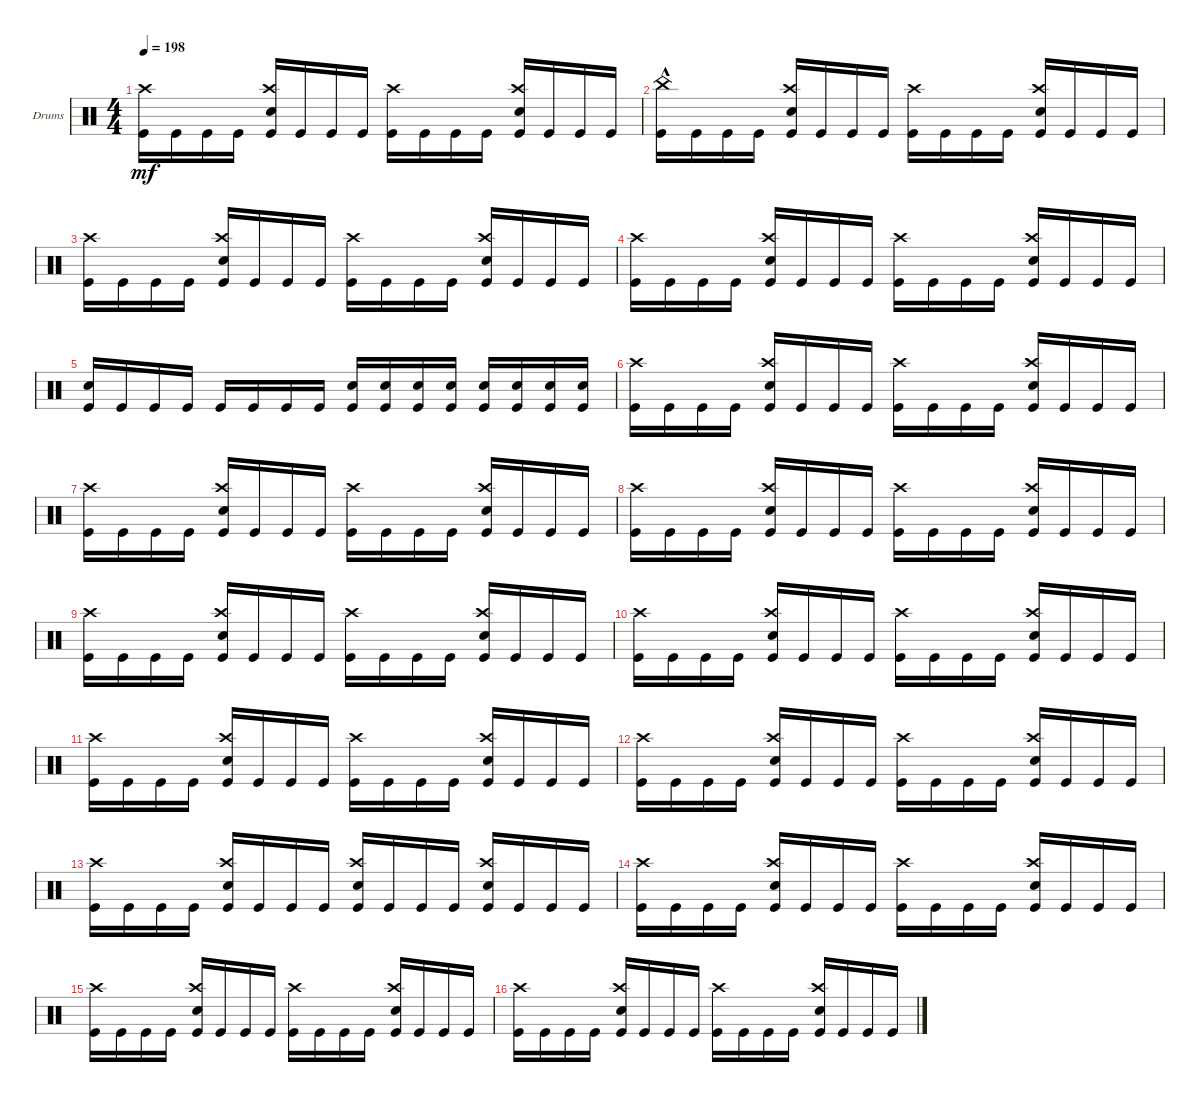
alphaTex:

\bracketExtendMode groupsimilarinstruments
\firstSystemTrackNameOrientation horizontal
\otherSystemsTrackNameOrientation horizontal
\track ("Drumkit" "Drums") {instrument percussion}
\staff {score}
\articulation defaults
\ts (4 4)
\tempo 198
\clef neutral
\ks c
("Kick (hit)" "Crash high (hit)").16{dy mf} "Kick (hit)".16 "Kick (hit)".16 "Kick (hit)".16 ("Kick (hit)" "Snare (hit) 2" "Crash high (hit)").16 "Kick (hit)".16 "Kick (hit)".16 "Kick (hit)".16 ("Kick (hit)" "Crash high (hit)").16 "Kick (hit)".16 "Kick (hit)".16 "Kick (hit)".16 ("Kick (hit)" "Snare (hit) 2" "Crash high (hit)").16 "Kick (hit)".16 "Kick (hit)".16 "Kick (hit)".16 |
("Kick (hit)" "China (hit)"{hac}).16 "Kick (hit)".16 "Kick (hit)".16 "Kick (hit)".16 ("Kick (hit)" "Snare (hit) 2" "Crash high (hit)").16 "Kick (hit)".16 "Kick (hit)".16 "Kick (hit)".16 ("Kick (hit)" "Crash high (hit)").16 "Kick (hit)".16 "Kick (hit)".16 "Kick (hit)".16 ("Kick (hit)" "Snare (hit) 2" "Crash high (hit)").16 "Kick (hit)".16 "Kick (hit)".16 "Kick (hit)".16 |
("Kick (hit)" "Crash high (hit)").16 "Kick (hit)".16 "Kick (hit)".16 "Kick (hit)".16 ("Kick (hit)" "Snare (hit) 2" "Crash high (hit)").16 "Kick (hit)".16 "Kick (hit)".16 "Kick (hit)".16 ("Kick (hit)" "Crash high (hit)").16 "Kick (hit)".16 "Kick (hit)".16 "Kick (hit)".16 ("Kick (hit)" "Snare (hit) 2" "Crash high (hit)").16 "Kick (hit)".16 "Kick (hit)".16 "Kick (hit)".16 |
("Kick (hit)" "Crash high (hit)").16 "Kick (hit)".16 "Kick (hit)".16 "Kick (hit)".16 ("Kick (hit)" "Snare (hit) 2" "Crash high (hit)").16 "Kick (hit)".16 "Kick (hit)".16 "Kick (hit)".16 ("Kick (hit)" "Crash high (hit)").16 "Kick (hit)".16 "Kick (hit)".16 "Kick (hit)".16 ("Kick (hit)" "Snare (hit) 2" "Crash high (hit)").16 "Kick (hit)".16 "Kick (hit)".16 "Kick (hit)".16 |
("Kick (hit)" "Snare (hit) 2").16 "Kick (hit)".16 "Kick (hit)".16 "Kick (hit)".16 "Kick (hit)".16 "Kick (hit)".16 "Kick (hit)".16 "Kick (hit)".16 ("Kick (hit)" "Snare (hit) 2").16 ("Kick (hit)" "Snare (hit) 2").16 ("Kick (hit)" "Snare (hit) 2").16 ("Kick (hit)" "Snare (hit) 2").16 ("Kick (hit)" "Snare (hit) 2").16 ("Kick (hit)" "Snare (hit) 2").16 ("Kick (hit)" "Snare (hit) 2").16 ("Kick (hit)" "Snare (hit) 2").16 |
("Kick (hit)" "Crash high (hit)").16 "Kick (hit)".16 "Kick (hit)".16 "Kick (hit)".16 ("Kick (hit)" "Snare (hit) 2" "Crash high (hit)").16 "Kick (hit)".16 "Kick (hit)".16 "Kick (hit)".16 ("Kick (hit)" "Crash high (hit)").16 "Kick (hit)".16 "Kick (hit)".16 "Kick (hit)".16 ("Kick (hit)" "Snare (hit) 2" "Crash high (hit)").16 "Kick (hit)".16 "Kick (hit)".16 "Kick (hit)".16 |
("Kick (hit)" "Crash high (hit)").16 "Kick (hit)".16 "Kick (hit)".16 "Kick (hit)".16 ("Kick (hit)" "Snare (hit) 2" "Crash high (hit)").16 "Kick (hit)".16 "Kick (hit)".16 "Kick (hit)".16 ("Kick (hit)" "Crash high (hit)").16 "Kick (hit)".16 "Kick (hit)".16 "Kick (hit)".16 ("Kick (hit)" "Snare (hit) 2" "Crash high (hit)").16 "Kick (hit)".16 "Kick (hit)".16 "Kick (hit)".16 |
("Kick (hit)" "Crash high (hit)").16 "Kick (hit)".16 "Kick (hit)".16 "Kick (hit)".16 ("Kick (hit)" "Snare (hit) 2" "Crash high (hit)").16 "Kick (hit)".16 "Kick (hit)".16 "Kick (hit)".16 ("Kick (hit)" "Crash high (hit)").16 "Kick (hit)".16 "Kick (hit)".16 "Kick (hit)".16 ("Kick (hit)" "Snare (hit) 2" "Crash high (hit)").16 "Kick (hit)".16 "Kick (hit)".16 "Kick (hit)".16 |
("Kick (hit)" "Crash high (hit)").16 "Kick (hit)".16 "Kick (hit)".16 "Kick (hit)".16 ("Kick (hit)" "Snare (hit) 2" "Crash high (hit)").16 "Kick (hit)".16 "Kick (hit)".16 "Kick (hit)".16 ("Kick (hit)" "Crash high (hit)").16 "Kick (hit)".16 "Kick (hit)".16 "Kick (hit)".16 ("Kick (hit)" "Snare (hit) 2" "Crash high (hit)").16 "Kick (hit)".16 "Kick (hit)".16 "Kick (hit)".16 |
("Kick (hit)" "Crash high (hit)").16 "Kick (hit)".16 "Kick (hit)".16 "Kick (hit)".16 ("Kick (hit)" "Snare (hit) 2" "Crash high (hit)").16 "Kick (hit)".16 "Kick (hit)".16 "Kick (hit)".16 ("Kick (hit)" "Crash high (hit)").16 "Kick (hit)".16 "Kick (hit)".16 "Kick (hit)".16 ("Kick (hit)" "Snare (hit) 2" "Crash high (hit)").16 "Kick (hit)".16 "Kick (hit)".16 "Kick (hit)".16 |
("Kick (hit)" "Crash high (hit)").16 "Kick (hit)".16 "Kick (hit)".16 "Kick (hit)".16 ("Kick (hit)" "Snare (hit) 2" "Crash high (hit)").16 "Kick (hit)".16 "Kick (hit)".16 "Kick (hit)".16 ("Kick (hit)" "Crash high (hit)").16 "Kick (hit)".16 "Kick (hit)".16 "Kick (hit)".16 ("Kick (hit)" "Snare (hit) 2" "Crash high (hit)").16 "Kick (hit)".16 "Kick (hit)".16 "Kick (hit)".16 |
("Kick (hit)" "Crash high (hit)").16 "Kick (hit)".16 "Kick (hit)".16 "Kick (hit)".16 ("Kick (hit)" "Snare (hit) 2" "Crash high (hit)").16 "Kick (hit)".16 "Kick (hit)".16 "Kick (hit)".16 ("Kick (hit)" "Crash high (hit)").16 "Kick (hit)".16 "Kick (hit)".16 "Kick (hit)".16 ("Kick (hit)" "Snare (hit) 2" "Crash high (hit)").16 "Kick (hit)".16 "Kick (hit)".16 "Kick (hit)".16 |
("Kick (hit)" "Crash high (hit)").16 "Kick (hit)".16 "Kick (hit)".16 "Kick (hit)".16 ("Kick (hit)" "Snare (hit) 2" "Crash high (hit)").16 "Kick (hit)".16 "Kick (hit)".16 "Kick (hit)".16 ("Kick (hit)" "Crash high (hit)" "Snare (hit) 2").16 "Kick (hit)".16 "Kick (hit)".16 "Kick (hit)".16 ("Kick (hit)" "Snare (hit) 2" "Crash high (hit)").16 "Kick (hit)".16 "Kick (hit)".16 "Kick (hit)".16 |
("Kick (hit)" "Crash high (hit)").16 "Kick (hit)".16 "Kick (hit)".16 "Kick (hit)".16 ("Kick (hit)" "Snare (hit) 2" "Crash high (hit)").16 "Kick (hit)".16 "Kick (hit)".16 "Kick (hit)".16 ("Kick (hit)" "Crash high (hit)").16 "Kick (hit)".16 "Kick (hit)".16 "Kick (hit)".16 ("Kick (hit)" "Snare (hit) 2" "Crash high (hit)").16 "Kick (hit)".16 "Kick (hit)".16 "Kick (hit)".16 |
("Kick (hit)" "Crash high (hit)").16 "Kick (hit)".16 "Kick (hit)".16 "Kick (hit)".16 ("Kick (hit)" "Snare (hit) 2" "Crash high (hit)").16 "Kick (hit)".16 "Kick (hit)".16 "Kick (hit)".16 ("Kick (hit)" "Crash high (hit)").16 "Kick (hit)".16 "Kick (hit)".16 "Kick (hit)".16 ("Kick (hit)" "Snare (hit) 2" "Crash high (hit)").16 "Kick (hit)".16 "Kick (hit)".16 "Kick (hit)".16 |
("Kick (hit)" "Crash high (hit)").16 "Kick (hit)".16 "Kick (hit)".16 "Kick (hit)".16 ("Kick (hit)" "Snare (hit) 2" "Crash high (hit)").16 "Kick (hit)".16 "Kick (hit)".16 "Kick (hit)".16 ("Kick (hit)" "Crash high (hit)").16 "Kick (hit)".16 "Kick (hit)".16 "Kick (hit)".16 ("Kick (hit)" "Snare (hit) 2" "Crash high (hit)").16 "Kick (hit)".16 "Kick (hit)".16 "Kick (hit)".16
